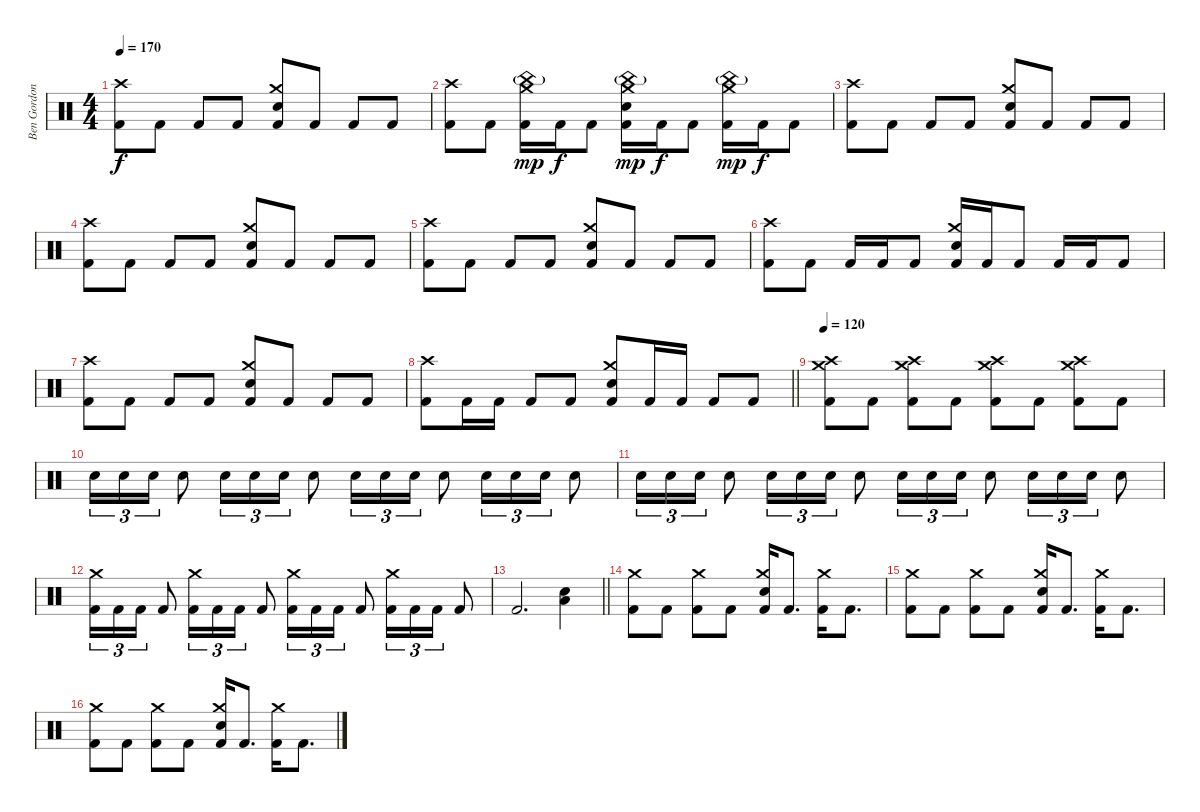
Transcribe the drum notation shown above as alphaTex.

\track ("Ben Gordon" "Ben Gordon") {instrument percussion}
\staff {score}
\articulation defaults
\ts (4 4)
\tempo 170
\clef neutral
\ks c
("Crash high (hit)" "Kick (hit) 2").8{dy f} "Kick (hit) 2".8 "Kick (hit) 2".8 "Kick (hit) 2".8 ("Crash medium (hit)" "Electric Snare (hit)" "Kick (hit) 2").8 "Kick (hit) 2".8 "Kick (hit) 2".8 "Kick (hit) 2".8 |
("Crash high (hit)" "Kick (hit) 2").8 "Kick (hit) 2".8 ("Crash medium (hit)" "China (hit)"{g} "Kick (hit) 2").16{dy mp} "Kick (hit) 2".16{dy f} "Kick (hit) 2".8 ("Crash medium (hit)" "China (hit)"{g} "Electric Snare (hit)" "Kick (hit) 2").16{dy mp} "Kick (hit) 2".16{dy f} "Kick (hit) 2".8 ("Crash medium (hit)" "China (hit)"{g} "Kick (hit) 2").16{dy mp} "Kick (hit) 2".16{dy f} "Kick (hit) 2".8 |
("Crash high (hit)" "Kick (hit) 2").8 "Kick (hit) 2".8 "Kick (hit) 2".8 "Kick (hit) 2".8 ("Crash medium (hit)" "Electric Snare (hit)" "Kick (hit) 2").8 "Kick (hit) 2".8 "Kick (hit) 2".8 "Kick (hit) 2".8 |
("Crash high (hit)" "Kick (hit) 2").8 "Kick (hit) 2".8 "Kick (hit) 2".8 "Kick (hit) 2".8 ("Crash medium (hit)" "Electric Snare (hit)" "Kick (hit) 2").8 "Kick (hit) 2".8 "Kick (hit) 2".8 "Kick (hit) 2".8 |
("Crash high (hit)" "Kick (hit) 2").8 "Kick (hit) 2".8 "Kick (hit) 2".8 "Kick (hit) 2".8 ("Crash medium (hit)" "Electric Snare (hit)" "Kick (hit) 2").8 "Kick (hit) 2".8 "Kick (hit) 2".8 "Kick (hit) 2".8 |
("Crash high (hit)" "Kick (hit) 2").8 "Kick (hit) 2".8 "Kick (hit) 2".16 "Kick (hit) 2".16 "Kick (hit) 2".8 ("Crash medium (hit)" "Electric Snare (hit)" "Kick (hit) 2").16 "Kick (hit) 2".16 "Kick (hit) 2".8 "Kick (hit) 2".16 "Kick (hit) 2".16 "Kick (hit) 2".8 |
("Crash high (hit)" "Kick (hit) 2").8 "Kick (hit) 2".8 "Kick (hit) 2".8 "Kick (hit) 2".8 ("Crash medium (hit)" "Electric Snare (hit)" "Kick (hit) 2").8 "Kick (hit) 2".8 "Kick (hit) 2".8 "Kick (hit) 2".8 |
\barLineRight lightlight
("Crash high (hit)" "Kick (hit) 2").8 "Kick (hit) 2".16 "Kick (hit) 2".16 "Kick (hit) 2".8 "Kick (hit) 2".8 ("Crash medium (hit)" "Electric Snare (hit)" "Kick (hit) 2").8 "Kick (hit) 2".16 "Kick (hit) 2".16 "Kick (hit) 2".8 "Kick (hit) 2".8 |
\tempo 120
("Crash medium (hit)" "Crash high (hit)" "Kick (hit) 2").8 "Kick (hit) 2".8 ("Crash medium (hit)" "Crash high (hit)" "Kick (hit) 2").8 "Kick (hit) 2".8 ("Crash medium (hit)" "Crash high (hit)" "Kick (hit) 2").8 "Kick (hit) 2".8 ("Crash medium (hit)" "Crash high (hit)" "Kick (hit) 2").8 "Kick (hit) 2".8 |
"Electric Snare (hit)".16{tu (3 2)} "Electric Snare (hit)".16{tu (3 2)} "Electric Snare (hit)".16{tu (3 2)} "Electric Snare (hit)".8 "Electric Snare (hit)".16{tu (3 2)} "Electric Snare (hit)".16{tu (3 2)} "Electric Snare (hit)".16{tu (3 2)} "Electric Snare (hit)".8 "Electric Snare (hit)".16{tu (3 2)} "Electric Snare (hit)".16{tu (3 2)} "Electric Snare (hit)".16{tu (3 2)} "Electric Snare (hit)".8 "Electric Snare (hit)".16{tu (3 2)} "Electric Snare (hit)".16{tu (3 2)} "Electric Snare (hit)".16{tu (3 2)} "Electric Snare (hit)".8 |
"Electric Snare (hit)".16{tu (3 2)} "Electric Snare (hit)".16{tu (3 2)} "Electric Snare (hit)".16{tu (3 2)} "Electric Snare (hit)".8 "Electric Snare (hit)".16{tu (3 2)} "Electric Snare (hit)".16{tu (3 2)} "Electric Snare (hit)".16{tu (3 2)} "Electric Snare (hit)".8 "Electric Snare (hit)".16{tu (3 2)} "Electric Snare (hit)".16{tu (3 2)} "Electric Snare (hit)".16{tu (3 2)} "Electric Snare (hit)".8 "Electric Snare (hit)".16{tu (3 2)} "Electric Snare (hit)".16{tu (3 2)} "Electric Snare (hit)".16{tu (3 2)} "Electric Snare (hit)".8 |
("Crash medium (hit)" "Kick (hit) 2").16{tu (3 2)} "Kick (hit) 2".16{tu (3 2)} "Kick (hit) 2".16{tu (3 2)} "Kick (hit) 2".8 ("Crash medium (hit)" "Kick (hit) 2").16{tu (3 2)} "Kick (hit) 2".16{tu (3 2)} "Kick (hit) 2".16{tu (3 2)} "Kick (hit) 2".8 ("Crash medium (hit)" "Kick (hit) 2").16{tu (3 2)} "Kick (hit) 2".16{tu (3 2)} "Kick (hit) 2".16{tu (3 2)} "Kick (hit) 2".8 ("Crash medium (hit)" "Kick (hit) 2").16{tu (3 2)} "Kick (hit) 2".16{tu (3 2)} "Kick (hit) 2".16{tu (3 2)} "Kick (hit) 2".8 |
\barLineRight lightlight "Kick (hit) 2".2{d}
("Low Floor Tom (hit)" "Electric Snare (hit)").4 |
("Crash medium (hit)" "Kick (hit) 2").8 "Kick (hit) 2".8 ("Crash medium (hit)" "Kick (hit) 2").8 "Kick (hit) 2".8 ("Crash medium (hit)" "Electric Snare (hit)" "Kick (hit) 2").16 "Kick (hit) 2".8{d} ("Crash medium (hit)" "Kick (hit) 2").16 "Kick (hit) 2".8{d} |
("Crash medium (hit)" "Kick (hit) 2").8 "Kick (hit) 2".8 ("Crash medium (hit)" "Kick (hit) 2").8 "Kick (hit) 2".8 ("Crash medium (hit)" "Electric Snare (hit)" "Kick (hit) 2").16 "Kick (hit) 2".8{d} ("Crash medium (hit)" "Kick (hit) 2").16 "Kick (hit) 2".8{d} |
("Crash medium (hit)" "Kick (hit) 2").8 "Kick (hit) 2".8 ("Crash medium (hit)" "Kick (hit) 2").8 "Kick (hit) 2".8 ("Crash medium (hit)" "Electric Snare (hit)" "Kick (hit) 2").16 "Kick (hit) 2".8{d} ("Crash medium (hit)" "Kick (hit) 2").16 "Kick (hit) 2".8{d}
